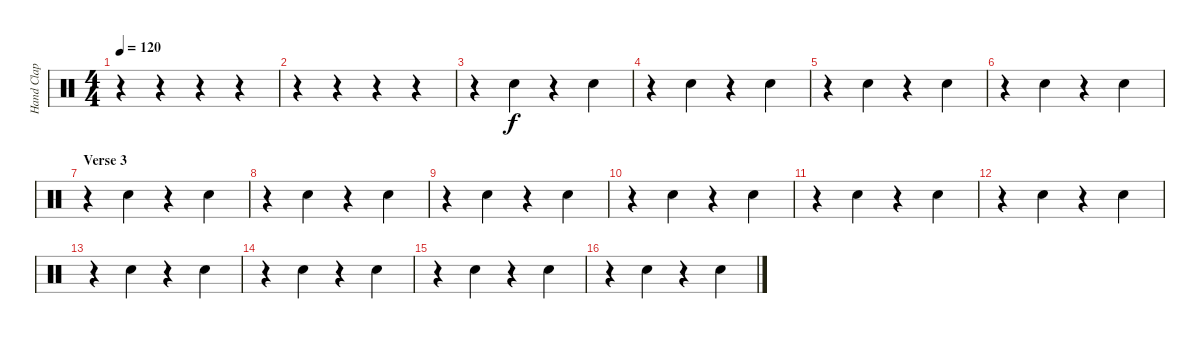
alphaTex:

\track ("Hand Clap" "Hand Clap") {instrument percussion}
\staff {score}
\articulation defaults
\ts (4 4)
\tempo 120
\clef neutral
\ks c
r.4{dy f} r.4 r.4 r.4 |
r.4 r.4 r.4 r.4 |
r.4 "Hand Clap (hit)".4 r.4 "Hand Clap (hit)".4 |
r.4 "Hand Clap (hit)".4 r.4 "Hand Clap (hit)".4 |
r.4 "Hand Clap (hit)".4 r.4 "Hand Clap (hit)".4 |
r.4 "Hand Clap (hit)".4 r.4 "Hand Clap (hit)".4 |
\section ("" "Verse 3")
r.4 "Hand Clap (hit)".4 r.4 "Hand Clap (hit)".4 |
r.4 "Hand Clap (hit)".4 r.4 "Hand Clap (hit)".4 |
r.4 "Hand Clap (hit)".4 r.4 "Hand Clap (hit)".4 |
r.4 "Hand Clap (hit)".4 r.4 "Hand Clap (hit)".4 |
r.4 "Hand Clap (hit)".4 r.4 "Hand Clap (hit)".4 |
r.4 "Hand Clap (hit)".4 r.4 "Hand Clap (hit)".4 |
r.4 "Hand Clap (hit)".4 r.4 "Hand Clap (hit)".4 |
r.4 "Hand Clap (hit)".4 r.4 "Hand Clap (hit)".4 |
r.4 "Hand Clap (hit)".4 r.4 "Hand Clap (hit)".4 |
r.4 "Hand Clap (hit)".4 r.4 "Hand Clap (hit)".4
